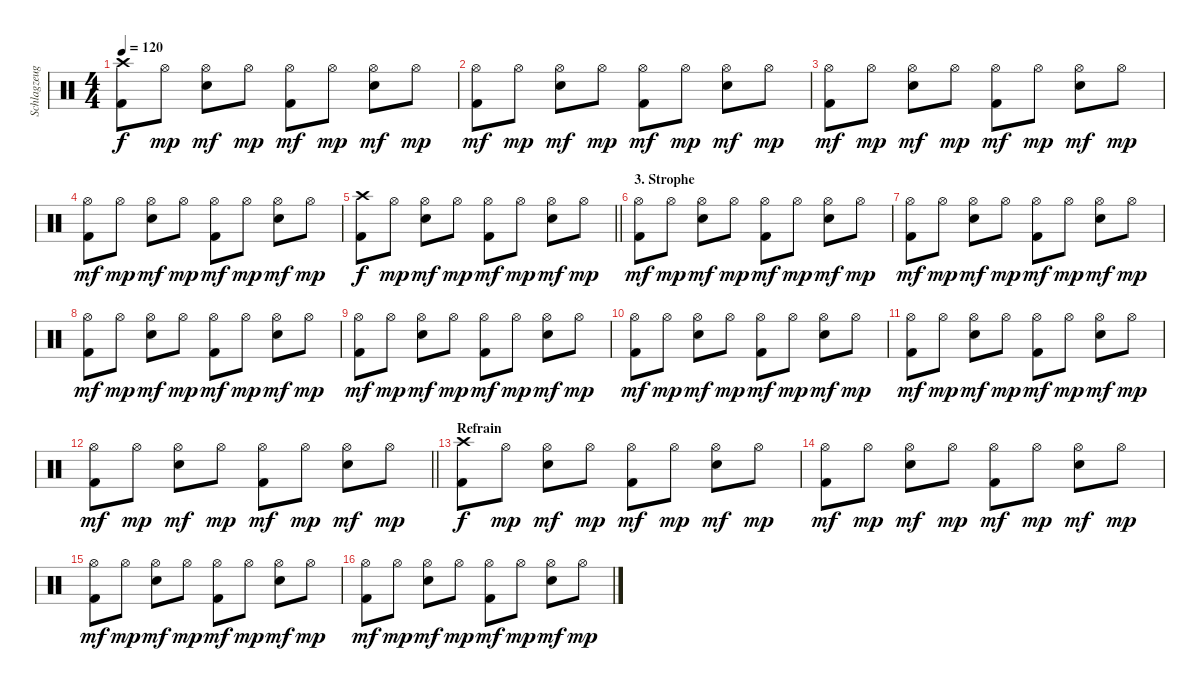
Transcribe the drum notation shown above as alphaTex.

\track ("Schlagzeug" "Schlagzeug") {instrument percussion}
\staff {score}
\articulation defaults
\ts (4 4)
\tempo 120
\clef neutral
\ks c
("Crash high (hit)" "Kick (hit) 2").8{dy f} "Hi-Hat (open)".8{dy mp} ("Hi-Hat (open)" "Electric Snare (hit)").8{dy mf} "Hi-Hat (open)".8{dy mp} ("Hi-Hat (open)" "Kick (hit) 2").8{dy mf} "Hi-Hat (open)".8{dy mp} ("Hi-Hat (open)" "Electric Snare (hit)").8{dy mf} "Hi-Hat (open)".8{dy mp} |
("Hi-Hat (open)" "Kick (hit) 2").8{dy mf} "Hi-Hat (open)".8{dy mp} ("Hi-Hat (open)" "Electric Snare (hit)").8{dy mf} "Hi-Hat (open)".8{dy mp} ("Hi-Hat (open)" "Kick (hit) 2").8{dy mf} "Hi-Hat (open)".8{dy mp} ("Hi-Hat (open)" "Electric Snare (hit)").8{dy mf} "Hi-Hat (open)".8{dy mp} |
("Hi-Hat (open)" "Kick (hit) 2").8{dy mf} "Hi-Hat (open)".8{dy mp} ("Hi-Hat (open)" "Electric Snare (hit)").8{dy mf} "Hi-Hat (open)".8{dy mp} ("Hi-Hat (open)" "Kick (hit) 2").8{dy mf} "Hi-Hat (open)".8{dy mp} ("Hi-Hat (open)" "Electric Snare (hit)").8{dy mf} "Hi-Hat (open)".8{dy mp} |
("Hi-Hat (open)" "Kick (hit) 2").8{dy mf} "Hi-Hat (open)".8{dy mp} ("Hi-Hat (open)" "Electric Snare (hit)").8{dy mf} "Hi-Hat (open)".8{dy mp} ("Hi-Hat (open)" "Kick (hit) 2").8{dy mf} "Hi-Hat (open)".8{dy mp} ("Hi-Hat (open)" "Electric Snare (hit)").8{dy mf} "Hi-Hat (open)".8{dy mp} |
\barLineRight lightlight
("Crash high (hit)" "Kick (hit) 2").8{dy f} "Hi-Hat (open)".8{dy mp} ("Hi-Hat (open)" "Electric Snare (hit)").8{dy mf} "Hi-Hat (open)".8{dy mp} ("Hi-Hat (open)" "Kick (hit) 2").8{dy mf} "Hi-Hat (open)".8{dy mp} ("Hi-Hat (open)" "Electric Snare (hit)").8{dy mf} "Hi-Hat (open)".8{dy mp} |
\section ("" "3. Strophe")
("Hi-Hat (open)" "Kick (hit) 2").8{dy mf} "Hi-Hat (open)".8{dy mp} ("Hi-Hat (open)" "Electric Snare (hit)").8{dy mf} "Hi-Hat (open)".8{dy mp} ("Hi-Hat (open)" "Kick (hit) 2").8{dy mf} "Hi-Hat (open)".8{dy mp} ("Hi-Hat (open)" "Electric Snare (hit)").8{dy mf} "Hi-Hat (open)".8{dy mp} |
("Hi-Hat (open)" "Kick (hit) 2").8{dy mf} "Hi-Hat (open)".8{dy mp} ("Hi-Hat (open)" "Electric Snare (hit)").8{dy mf} "Hi-Hat (open)".8{dy mp} ("Hi-Hat (open)" "Kick (hit) 2").8{dy mf} "Hi-Hat (open)".8{dy mp} ("Hi-Hat (open)" "Electric Snare (hit)").8{dy mf} "Hi-Hat (open)".8{dy mp} |
("Hi-Hat (open)" "Kick (hit) 2").8{dy mf} "Hi-Hat (open)".8{dy mp} ("Hi-Hat (open)" "Electric Snare (hit)").8{dy mf} "Hi-Hat (open)".8{dy mp} ("Hi-Hat (open)" "Kick (hit) 2").8{dy mf} "Hi-Hat (open)".8{dy mp} ("Hi-Hat (open)" "Electric Snare (hit)").8{dy mf} "Hi-Hat (open)".8{dy mp} |
("Hi-Hat (open)" "Kick (hit) 2").8{dy mf} "Hi-Hat (open)".8{dy mp} ("Hi-Hat (open)" "Electric Snare (hit)").8{dy mf} "Hi-Hat (open)".8{dy mp} ("Hi-Hat (open)" "Kick (hit) 2").8{dy mf} "Hi-Hat (open)".8{dy mp} ("Hi-Hat (open)" "Electric Snare (hit)").8{dy mf} "Hi-Hat (open)".8{dy mp} |
("Hi-Hat (open)" "Kick (hit) 2").8{dy mf} "Hi-Hat (open)".8{dy mp} ("Hi-Hat (open)" "Electric Snare (hit)").8{dy mf} "Hi-Hat (open)".8{dy mp} ("Hi-Hat (open)" "Kick (hit) 2").8{dy mf} "Hi-Hat (open)".8{dy mp} ("Hi-Hat (open)" "Electric Snare (hit)").8{dy mf} "Hi-Hat (open)".8{dy mp} |
("Hi-Hat (open)" "Kick (hit) 2").8{dy mf} "Hi-Hat (open)".8{dy mp} ("Hi-Hat (open)" "Electric Snare (hit)").8{dy mf} "Hi-Hat (open)".8{dy mp} ("Hi-Hat (open)" "Kick (hit) 2").8{dy mf} "Hi-Hat (open)".8{dy mp} ("Hi-Hat (open)" "Electric Snare (hit)").8{dy mf} "Hi-Hat (open)".8{dy mp} |
\barLineRight lightlight
("Hi-Hat (open)" "Kick (hit) 2").8{dy mf} "Hi-Hat (open)".8{dy mp} ("Hi-Hat (open)" "Electric Snare (hit)").8{dy mf} "Hi-Hat (open)".8{dy mp} ("Hi-Hat (open)" "Kick (hit) 2").8{dy mf} "Hi-Hat (open)".8{dy mp} ("Hi-Hat (open)" "Electric Snare (hit)").8{dy mf} "Hi-Hat (open)".8{dy mp} |
\section ("" "Refrain")
("Crash high (hit)" "Kick (hit) 2").8{dy f} "Hi-Hat (open)".8{dy mp} ("Hi-Hat (open)" "Electric Snare (hit)").8{dy mf} "Hi-Hat (open)".8{dy mp} ("Hi-Hat (open)" "Kick (hit) 2").8{dy mf} "Hi-Hat (open)".8{dy mp} ("Hi-Hat (open)" "Electric Snare (hit)").8{dy mf} "Hi-Hat (open)".8{dy mp} |
("Hi-Hat (open)" "Kick (hit) 2").8{dy mf} "Hi-Hat (open)".8{dy mp} ("Hi-Hat (open)" "Electric Snare (hit)").8{dy mf} "Hi-Hat (open)".8{dy mp} ("Hi-Hat (open)" "Kick (hit) 2").8{dy mf} "Hi-Hat (open)".8{dy mp} ("Hi-Hat (open)" "Electric Snare (hit)").8{dy mf} "Hi-Hat (open)".8{dy mp} |
("Hi-Hat (open)" "Kick (hit) 2").8{dy mf} "Hi-Hat (open)".8{dy mp} ("Hi-Hat (open)" "Electric Snare (hit)").8{dy mf} "Hi-Hat (open)".8{dy mp} ("Hi-Hat (open)" "Kick (hit) 2").8{dy mf} "Hi-Hat (open)".8{dy mp} ("Hi-Hat (open)" "Electric Snare (hit)").8{dy mf} "Hi-Hat (open)".8{dy mp} |
("Hi-Hat (open)" "Kick (hit) 2").8{dy mf} "Hi-Hat (open)".8{dy mp} ("Hi-Hat (open)" "Electric Snare (hit)").8{dy mf} "Hi-Hat (open)".8{dy mp} ("Hi-Hat (open)" "Kick (hit) 2").8{dy mf} "Hi-Hat (open)".8{dy mp} ("Hi-Hat (open)" "Electric Snare (hit)").8{dy mf} "Hi-Hat (open)".8{dy mp}
